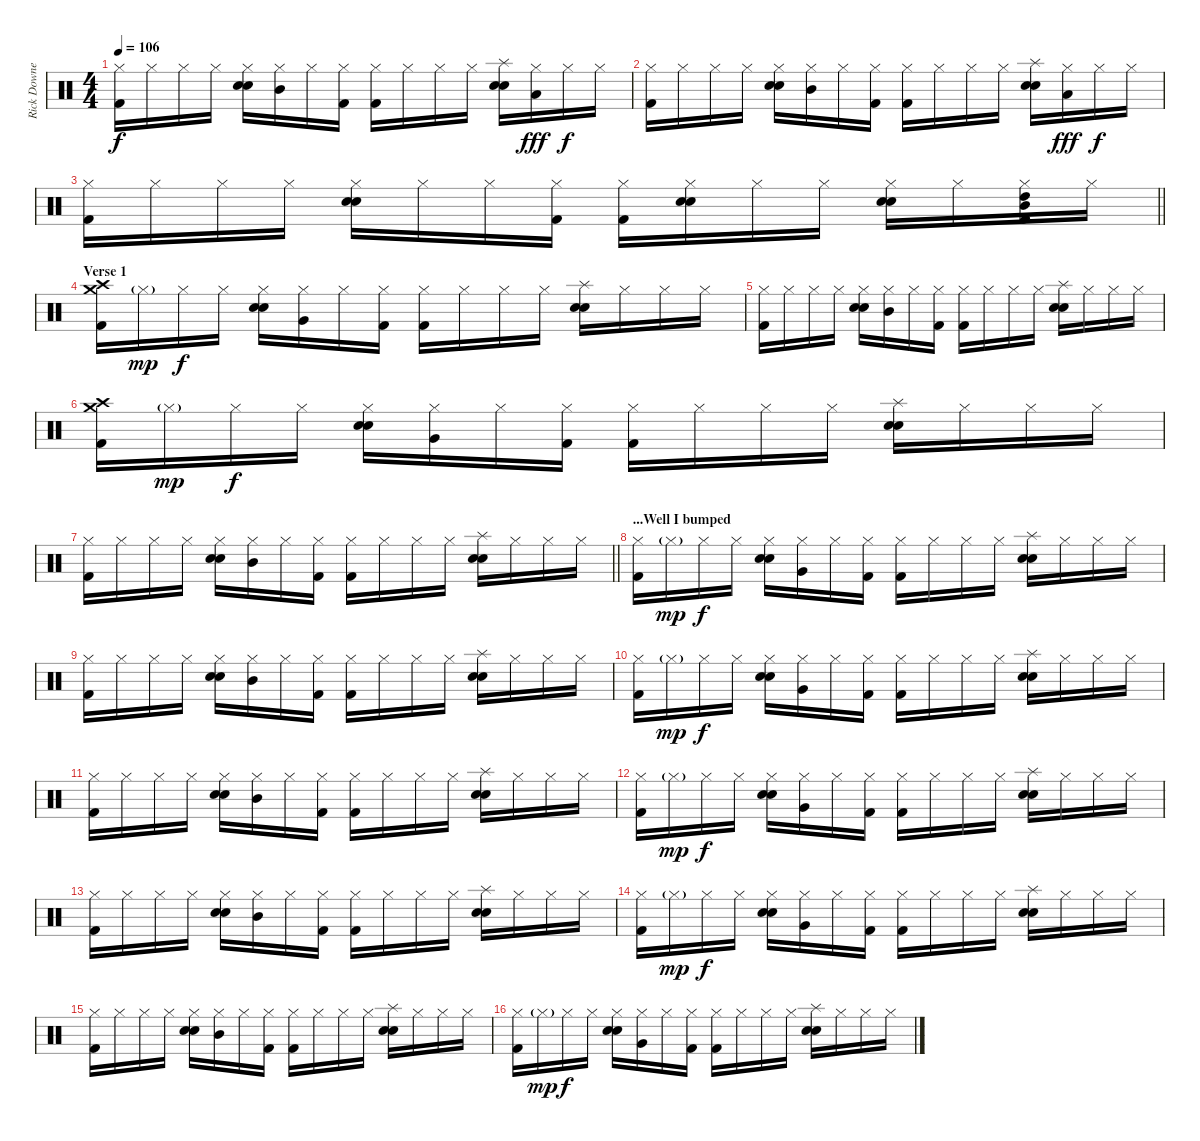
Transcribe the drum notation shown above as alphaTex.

\track ("Rick Downey" "Rick Downe") {instrument percussion}
\staff {score}
\articulation defaults
\ts (4 4)
\tempo 106
\clef neutral
\ks c
("Hi-Hat (closed)" "Kick (hit) 2").16{dy f} "Hi-Hat (closed)".16 "Hi-Hat (closed)".16 "Hi-Hat (closed)".16 ("Hi-Hat (closed)" "Electric Snare (hit)" "Snare (hit) 2").16 ("Mid Tom (hit)" "Hi-Hat (closed)").16 "Hi-Hat (closed)".16 ("Hi-Hat (closed)" "Kick (hit) 2").16 ("Hi-Hat (closed)" "Kick (hit) 2").16 "Hi-Hat (closed)".16 "Hi-Hat (closed)".16 "Hi-Hat (closed)".16 ("Splash (hit)" "Electric Snare (hit)" "Snare (hit) 2").16 ("Low Tom (hit)" "Hi-Hat (closed)").16{dy fff} "Hi-Hat (closed)".16{dy f} "Hi-Hat (closed)".16 |
("Hi-Hat (closed)" "Kick (hit) 2").16 "Hi-Hat (closed)".16 "Hi-Hat (closed)".16 "Hi-Hat (closed)".16 ("Hi-Hat (closed)" "Electric Snare (hit)" "Snare (hit) 2").16 ("Mid Tom (hit)" "Hi-Hat (closed)").16 "Hi-Hat (closed)".16 ("Hi-Hat (closed)" "Kick (hit) 2").16 ("Hi-Hat (closed)" "Kick (hit) 2").16 "Hi-Hat (closed)".16 "Hi-Hat (closed)".16 "Hi-Hat (closed)".16 ("Splash (hit)" "Electric Snare (hit)" "Snare (hit) 2").16 ("Low Tom (hit)" "Hi-Hat (closed)").16{dy fff} "Hi-Hat (closed)".16{dy f} "Hi-Hat (closed)".16 |
\barLineRight lightlight
("Hi-Hat (closed)" "Kick (hit) 2").16 "Hi-Hat (closed)".16 "Hi-Hat (closed)".16 "Hi-Hat (closed)".16 ("Hi-Hat (closed)" "Electric Snare (hit)" "Snare (hit) 2").16 "Hi-Hat (closed)".16 "Hi-Hat (closed)".16 ("Hi-Hat (closed)" "Kick (hit) 2").16 ("Hi-Hat (closed)" "Kick (hit) 2").16 ("Hi-Hat (closed)" "Electric Snare (hit)" "Snare (hit) 2").16 "Hi-Hat (closed)".16 "Hi-Hat (closed)".16 ("Hi-Hat (closed)" "Electric Snare (hit)" "Snare (hit) 2").16 "Hi-Hat (closed)".16 ("High Tom (hit)" "Mid Tom (hit)" "Hi-Hat (closed)" "Kick (hit) 2").16 "Hi-Hat (closed)".16 |
\section ("" "Verse 1")
("Crash medium (hit)" "Crash high (hit)" "Kick (hit) 2").16 "Hi-Hat (closed)"{g}.16{dy mp} "Hi-Hat (closed)".16{dy f} "Hi-Hat (closed)".16 ("Hi-Hat (closed)" "Electric Snare (hit)" "Snare (hit) 2").16 ("Hi-Hat (closed)" "Very Low Tom (hit)").16 "Hi-Hat (closed)".16 ("Hi-Hat (closed)" "Kick (hit) 2").16 ("Hi-Hat (closed)" "Kick (hit) 2").16 "Hi-Hat (closed)".16 "Hi-Hat (closed)".16 "Hi-Hat (closed)".16 ("Splash (hit)" "Electric Snare (hit)" "Snare (hit) 2").16 "Hi-Hat (closed)".16 "Hi-Hat (closed)".16 "Hi-Hat (closed)".16 |
("Hi-Hat (closed)" "Kick (hit) 2").16 "Hi-Hat (closed)".16 "Hi-Hat (closed)".16 "Hi-Hat (closed)".16 ("Hi-Hat (closed)" "Electric Snare (hit)" "Snare (hit) 2").16 ("Mid Tom (hit)" "Hi-Hat (closed)").16 "Hi-Hat (closed)".16 ("Hi-Hat (closed)" "Kick (hit) 2").16 ("Hi-Hat (closed)" "Kick (hit) 2").16 "Hi-Hat (closed)".16 "Hi-Hat (closed)".16 "Hi-Hat (closed)".16 ("Splash (hit)" "Electric Snare (hit)" "Snare (hit) 2").16 "Hi-Hat (closed)".16 "Hi-Hat (closed)".16 "Hi-Hat (closed)".16 |
("Crash medium (hit)" "Crash high (hit)" "Kick (hit) 2").16 "Hi-Hat (closed)"{g}.16{dy mp} "Hi-Hat (closed)".16{dy f} "Hi-Hat (closed)".16 ("Hi-Hat (closed)" "Electric Snare (hit)" "Snare (hit) 2").16 ("Hi-Hat (closed)" "Very Low Tom (hit)").16 "Hi-Hat (closed)".16 ("Hi-Hat (closed)" "Kick (hit) 2").16 ("Hi-Hat (closed)" "Kick (hit) 2").16 "Hi-Hat (closed)".16 "Hi-Hat (closed)".16 "Hi-Hat (closed)".16 ("Splash (hit)" "Electric Snare (hit)" "Snare (hit) 2").16 "Hi-Hat (closed)".16 "Hi-Hat (closed)".16 "Hi-Hat (closed)".16 |
\barLineRight lightlight
("Hi-Hat (closed)" "Kick (hit) 2").16 "Hi-Hat (closed)".16 "Hi-Hat (closed)".16 "Hi-Hat (closed)".16 ("Hi-Hat (closed)" "Electric Snare (hit)" "Snare (hit) 2").16 ("Mid Tom (hit)" "Hi-Hat (closed)").16 "Hi-Hat (closed)".16 ("Hi-Hat (closed)" "Kick (hit) 2").16 ("Hi-Hat (closed)" "Kick (hit) 2").16 "Hi-Hat (closed)".16 "Hi-Hat (closed)".16 "Hi-Hat (closed)".16 ("Splash (hit)" "Electric Snare (hit)" "Snare (hit) 2").16 "Hi-Hat (closed)".16 "Hi-Hat (closed)".16 "Hi-Hat (closed)".16 |
\section ("" "...Well I bumped")
("Hi-Hat (closed)" "Kick (hit) 2").16 "Hi-Hat (closed)"{g}.16{dy mp} "Hi-Hat (closed)".16{dy f} "Hi-Hat (closed)".16 ("Hi-Hat (closed)" "Electric Snare (hit)" "Snare (hit) 2").16 ("Hi-Hat (closed)" "Very Low Tom (hit)").16 "Hi-Hat (closed)".16 ("Hi-Hat (closed)" "Kick (hit) 2").16 ("Hi-Hat (closed)" "Kick (hit) 2").16 "Hi-Hat (closed)".16 "Hi-Hat (closed)".16 "Hi-Hat (closed)".16 ("Splash (hit)" "Electric Snare (hit)" "Snare (hit) 2").16 "Hi-Hat (closed)".16 "Hi-Hat (closed)".16 "Hi-Hat (closed)".16 |
("Hi-Hat (closed)" "Kick (hit) 2").16 "Hi-Hat (closed)".16 "Hi-Hat (closed)".16 "Hi-Hat (closed)".16 ("Hi-Hat (closed)" "Electric Snare (hit)" "Snare (hit) 2").16 ("Mid Tom (hit)" "Hi-Hat (closed)").16 "Hi-Hat (closed)".16 ("Hi-Hat (closed)" "Kick (hit) 2").16 ("Hi-Hat (closed)" "Kick (hit) 2").16 "Hi-Hat (closed)".16 "Hi-Hat (closed)".16 "Hi-Hat (closed)".16 ("Splash (hit)" "Electric Snare (hit)" "Snare (hit) 2").16 "Hi-Hat (closed)".16 "Hi-Hat (closed)".16 "Hi-Hat (closed)".16 |
("Hi-Hat (closed)" "Kick (hit) 2").16 "Hi-Hat (closed)"{g}.16{dy mp} "Hi-Hat (closed)".16{dy f} "Hi-Hat (closed)".16 ("Hi-Hat (closed)" "Electric Snare (hit)" "Snare (hit) 2").16 ("Hi-Hat (closed)" "Very Low Tom (hit)").16 "Hi-Hat (closed)".16 ("Hi-Hat (closed)" "Kick (hit) 2").16 ("Hi-Hat (closed)" "Kick (hit) 2").16 "Hi-Hat (closed)".16 "Hi-Hat (closed)".16 "Hi-Hat (closed)".16 ("Splash (hit)" "Electric Snare (hit)" "Snare (hit) 2").16 "Hi-Hat (closed)".16 "Hi-Hat (closed)".16 "Hi-Hat (closed)".16 |
("Hi-Hat (closed)" "Kick (hit) 2").16 "Hi-Hat (closed)".16 "Hi-Hat (closed)".16 "Hi-Hat (closed)".16 ("Hi-Hat (closed)" "Electric Snare (hit)" "Snare (hit) 2").16 ("Mid Tom (hit)" "Hi-Hat (closed)").16 "Hi-Hat (closed)".16 ("Hi-Hat (closed)" "Kick (hit) 2").16 ("Hi-Hat (closed)" "Kick (hit) 2").16 "Hi-Hat (closed)".16 "Hi-Hat (closed)".16 "Hi-Hat (closed)".16 ("Splash (hit)" "Electric Snare (hit)" "Snare (hit) 2").16 "Hi-Hat (closed)".16 "Hi-Hat (closed)".16 "Hi-Hat (closed)".16 |
("Hi-Hat (closed)" "Kick (hit) 2").16 "Hi-Hat (closed)"{g}.16{dy mp} "Hi-Hat (closed)".16{dy f} "Hi-Hat (closed)".16 ("Hi-Hat (closed)" "Electric Snare (hit)" "Snare (hit) 2").16 ("Hi-Hat (closed)" "Very Low Tom (hit)").16 "Hi-Hat (closed)".16 ("Hi-Hat (closed)" "Kick (hit) 2").16 ("Hi-Hat (closed)" "Kick (hit) 2").16 "Hi-Hat (closed)".16 "Hi-Hat (closed)".16 "Hi-Hat (closed)".16 ("Splash (hit)" "Electric Snare (hit)" "Snare (hit) 2").16 "Hi-Hat (closed)".16 "Hi-Hat (closed)".16 "Hi-Hat (closed)".16 |
("Hi-Hat (closed)" "Kick (hit) 2").16 "Hi-Hat (closed)".16 "Hi-Hat (closed)".16 "Hi-Hat (closed)".16 ("Hi-Hat (closed)" "Electric Snare (hit)" "Snare (hit) 2").16 ("Mid Tom (hit)" "Hi-Hat (closed)").16 "Hi-Hat (closed)".16 ("Hi-Hat (closed)" "Kick (hit) 2").16 ("Hi-Hat (closed)" "Kick (hit) 2").16 "Hi-Hat (closed)".16 "Hi-Hat (closed)".16 "Hi-Hat (closed)".16 ("Splash (hit)" "Electric Snare (hit)" "Snare (hit) 2").16 "Hi-Hat (closed)".16 "Hi-Hat (closed)".16 "Hi-Hat (closed)".16 |
("Hi-Hat (closed)" "Kick (hit) 2").16 "Hi-Hat (closed)"{g}.16{dy mp} "Hi-Hat (closed)".16{dy f} "Hi-Hat (closed)".16 ("Hi-Hat (closed)" "Electric Snare (hit)" "Snare (hit) 2").16 ("Hi-Hat (closed)" "Very Low Tom (hit)").16 "Hi-Hat (closed)".16 ("Hi-Hat (closed)" "Kick (hit) 2").16 ("Hi-Hat (closed)" "Kick (hit) 2").16 "Hi-Hat (closed)".16 "Hi-Hat (closed)".16 "Hi-Hat (closed)".16 ("Splash (hit)" "Electric Snare (hit)" "Snare (hit) 2").16 "Hi-Hat (closed)".16 "Hi-Hat (closed)".16 "Hi-Hat (closed)".16 |
("Hi-Hat (closed)" "Kick (hit) 2").16 "Hi-Hat (closed)".16 "Hi-Hat (closed)".16 "Hi-Hat (closed)".16 ("Hi-Hat (closed)" "Electric Snare (hit)" "Snare (hit) 2").16 ("Mid Tom (hit)" "Hi-Hat (closed)").16 "Hi-Hat (closed)".16 ("Hi-Hat (closed)" "Kick (hit) 2").16 ("Hi-Hat (closed)" "Kick (hit) 2").16 "Hi-Hat (closed)".16 "Hi-Hat (closed)".16 "Hi-Hat (closed)".16 ("Splash (hit)" "Electric Snare (hit)" "Snare (hit) 2").16 "Hi-Hat (closed)".16 "Hi-Hat (closed)".16 "Hi-Hat (closed)".16 |
("Hi-Hat (closed)" "Kick (hit) 2").16 "Hi-Hat (closed)"{g}.16{dy mp} "Hi-Hat (closed)".16{dy f} "Hi-Hat (closed)".16 ("Hi-Hat (closed)" "Electric Snare (hit)" "Snare (hit) 2").16 ("Hi-Hat (closed)" "Very Low Tom (hit)").16 "Hi-Hat (closed)".16 ("Hi-Hat (closed)" "Kick (hit) 2").16 ("Hi-Hat (closed)" "Kick (hit) 2").16 "Hi-Hat (closed)".16 "Hi-Hat (closed)".16 "Hi-Hat (closed)".16 ("Splash (hit)" "Electric Snare (hit)" "Snare (hit) 2").16 "Hi-Hat (closed)".16 "Hi-Hat (closed)".16 "Hi-Hat (closed)".16
